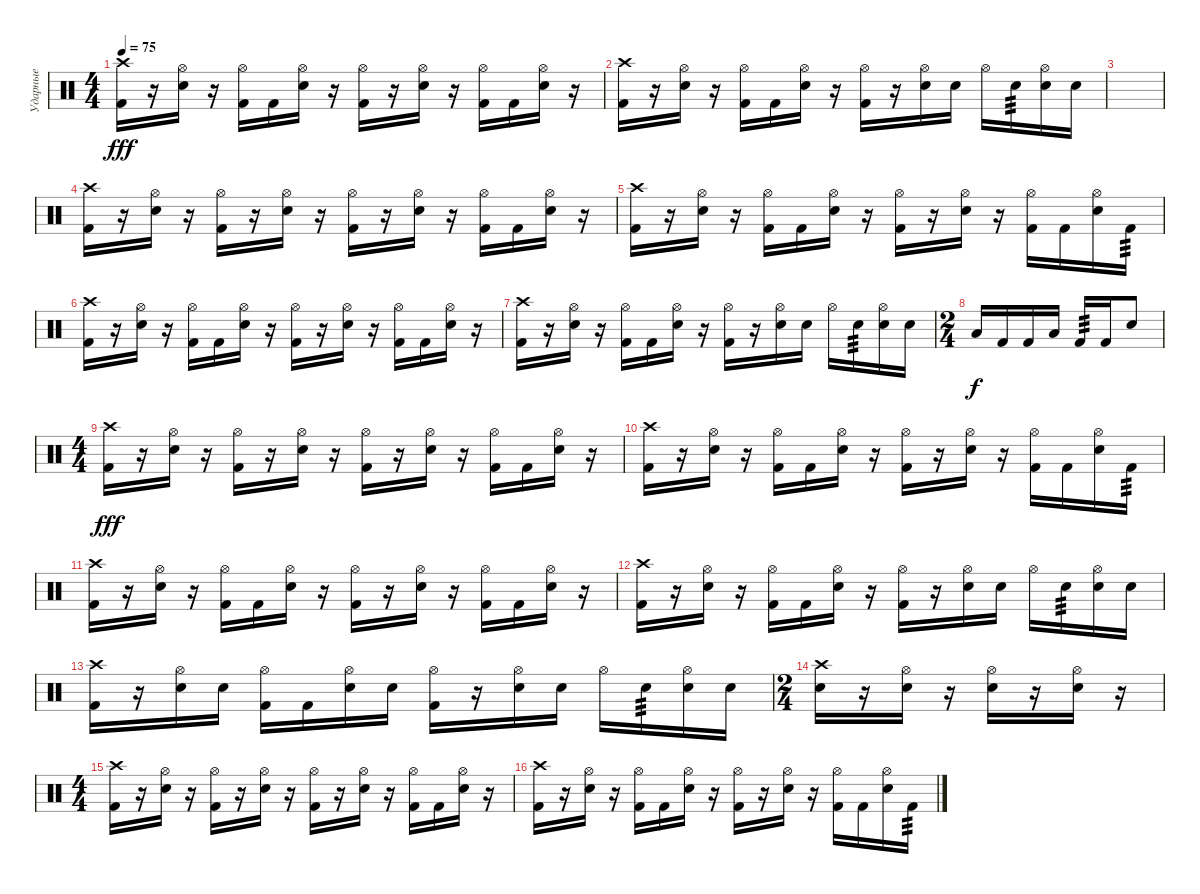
\track ("Ударные" "Ударные") {instrument percussion}
\staff {score}
\articulation defaults
\ts (4 4)
\tempo 75
\clef neutral
\ks c
("Crash high (hit)" "Kick (hit) 2").16{dy fff} r.16 ("Hi-Hat (open)" "Snare (hit) 2").16 r.16 ("Hi-Hat (open)" "Kick (hit) 2").16 "Kick (hit) 2".16 ("Hi-Hat (open)" "Snare (hit) 2").16 r.16 ("Hi-Hat (open)" "Kick (hit) 2").16 r.16 ("Hi-Hat (open)" "Snare (hit) 2").16 r.16 ("Hi-Hat (open)" "Kick (hit) 2").16 "Kick (hit) 2".16 ("Hi-Hat (open)" "Snare (hit) 2").16 r.16 |
("Crash high (hit)" "Kick (hit) 2").16 r.16 ("Hi-Hat (open)" "Snare (hit) 2").16 r.16 ("Hi-Hat (open)" "Kick (hit) 2").16 "Kick (hit) 2".16 ("Hi-Hat (open)" "Snare (hit) 2").16 r.16 ("Hi-Hat (open)" "Kick (hit) 2").16 r.16 ("Hi-Hat (open)" "Snare (hit) 2").16 "Snare (hit) 2".16 "Hi-Hat (open)".16 "Snare (hit) 2".16{tp 3} ("Hi-Hat (open)" "Snare (hit) 2").16 "Snare (hit) 2".16 |
|
("Crash high (hit)" "Kick (hit) 2").16 r.16 ("Hi-Hat (open)" "Snare (hit) 2").16 r.16 ("Hi-Hat (open)" "Kick (hit) 2").16 r.16 ("Hi-Hat (open)" "Snare (hit) 2").16 r.16 ("Hi-Hat (open)" "Kick (hit) 2").16 r.16 ("Hi-Hat (open)" "Snare (hit) 2").16 r.16 ("Hi-Hat (open)" "Kick (hit) 2").16 "Kick (hit) 2".16 ("Hi-Hat (open)" "Snare (hit) 2").16 r.16 |
("Crash high (hit)" "Kick (hit) 2").16 r.16 ("Hi-Hat (open)" "Snare (hit) 2").16 r.16 ("Hi-Hat (open)" "Kick (hit) 2").16 "Kick (hit) 2".16 ("Hi-Hat (open)" "Snare (hit) 2").16 r.16 ("Hi-Hat (open)" "Kick (hit) 2").16 r.16 ("Hi-Hat (open)" "Snare (hit) 2").16 r.16 ("Hi-Hat (open)" "Kick (hit) 2").16 "Kick (hit) 2".16 ("Hi-Hat (open)" "Snare (hit) 2").16 "Kick (hit) 2".16{tp 3} |
("Crash high (hit)" "Kick (hit) 2").16 r.16 ("Hi-Hat (open)" "Snare (hit) 2").16 r.16 ("Hi-Hat (open)" "Kick (hit) 2").16 "Kick (hit) 2".16 ("Hi-Hat (open)" "Snare (hit) 2").16 r.16 ("Hi-Hat (open)" "Kick (hit) 2").16 r.16 ("Hi-Hat (open)" "Snare (hit) 2").16 r.16 ("Hi-Hat (open)" "Kick (hit) 2").16 "Kick (hit) 2".16 ("Hi-Hat (open)" "Snare (hit) 2").16 r.16 |
("Crash high (hit)" "Kick (hit) 2").16 r.16 ("Hi-Hat (open)" "Snare (hit) 2").16 r.16 ("Hi-Hat (open)" "Kick (hit) 2").16 "Kick (hit) 2".16 ("Hi-Hat (open)" "Snare (hit) 2").16 r.16 ("Hi-Hat (open)" "Kick (hit) 2").16 r.16 ("Hi-Hat (open)" "Snare (hit) 2").16 "Snare (hit) 2".16 "Hi-Hat (open)".16 "Snare (hit) 2".16{tp 3} ("Hi-Hat (open)" "Snare (hit) 2").16 "Snare (hit) 2".16 |
\ts (2 4)
"Low Floor Tom (hit)".16{dy f} "Kick (hit) 2".16 "Kick (hit) 2".16 "Low Floor Tom (hit)".16 "Kick (hit) 2".16{tp 3} "Kick (hit) 2".16 "Snare (hit) 2".8 |
\ts (4 4)
("Crash high (hit)" "Kick (hit) 2").16{dy fff} r.16 ("Hi-Hat (open)" "Snare (hit) 2").16 r.16 ("Hi-Hat (open)" "Kick (hit) 2").16 r.16 ("Hi-Hat (open)" "Snare (hit) 2").16 r.16 ("Hi-Hat (open)" "Kick (hit) 2").16 r.16 ("Hi-Hat (open)" "Snare (hit) 2").16 r.16 ("Hi-Hat (open)" "Kick (hit) 2").16 "Kick (hit) 2".16 ("Hi-Hat (open)" "Snare (hit) 2").16 r.16 |
("Crash high (hit)" "Kick (hit) 2").16 r.16 ("Hi-Hat (open)" "Snare (hit) 2").16 r.16 ("Hi-Hat (open)" "Kick (hit) 2").16 "Kick (hit) 2".16 ("Hi-Hat (open)" "Snare (hit) 2").16 r.16 ("Hi-Hat (open)" "Kick (hit) 2").16 r.16 ("Hi-Hat (open)" "Snare (hit) 2").16 r.16 ("Hi-Hat (open)" "Kick (hit) 2").16 "Kick (hit) 2".16 ("Hi-Hat (open)" "Snare (hit) 2").16 "Kick (hit) 2".16{tp 3} |
("Crash high (hit)" "Kick (hit) 2").16 r.16 ("Hi-Hat (open)" "Snare (hit) 2").16 r.16 ("Hi-Hat (open)" "Kick (hit) 2").16 "Kick (hit) 2".16 ("Hi-Hat (open)" "Snare (hit) 2").16 r.16 ("Hi-Hat (open)" "Kick (hit) 2").16 r.16 ("Hi-Hat (open)" "Snare (hit) 2").16 r.16 ("Hi-Hat (open)" "Kick (hit) 2").16 "Kick (hit) 2".16 ("Hi-Hat (open)" "Snare (hit) 2").16 r.16 |
("Crash high (hit)" "Kick (hit) 2").16 r.16 ("Hi-Hat (open)" "Snare (hit) 2").16 r.16 ("Hi-Hat (open)" "Kick (hit) 2").16 "Kick (hit) 2".16 ("Hi-Hat (open)" "Snare (hit) 2").16 r.16 ("Hi-Hat (open)" "Kick (hit) 2").16 r.16 ("Hi-Hat (open)" "Snare (hit) 2").16 "Snare (hit) 2".16 "Hi-Hat (open)".16 "Snare (hit) 2".16{tp 3} ("Hi-Hat (open)" "Snare (hit) 2").16 "Snare (hit) 2".16 |
("Crash high (hit)" "Kick (hit) 2").16 r.16 ("Hi-Hat (open)" "Snare (hit) 2").16 "Snare (hit) 2".16 ("Hi-Hat (open)" "Kick (hit) 2").16 "Kick (hit) 2".16 ("Hi-Hat (open)" "Snare (hit) 2").16 "Snare (hit) 2".16 ("Hi-Hat (open)" "Kick (hit) 2").16 r.16 ("Hi-Hat (open)" "Snare (hit) 2").16 "Snare (hit) 2".16 "Hi-Hat (open)".16 "Snare (hit) 2".16{tp 3} ("Hi-Hat (open)" "Snare (hit) 2").16 "Snare (hit) 2".16 |
\ts (2 4)
("Crash high (hit)" "Snare (hit) 2").16 r.16 ("Hi-Hat (open)" "Snare (hit) 2").16 r.16 ("Hi-Hat (open)" "Snare (hit) 2").16 r.16 ("Hi-Hat (open)" "Snare (hit) 2").16 r.16 |
\ts (4 4)
("Crash high (hit)" "Kick (hit) 2").16 r.16 ("Hi-Hat (open)" "Snare (hit) 2").16 r.16 ("Hi-Hat (open)" "Kick (hit) 2").16 r.16 ("Hi-Hat (open)" "Snare (hit) 2").16 r.16 ("Hi-Hat (open)" "Kick (hit) 2").16 r.16 ("Hi-Hat (open)" "Snare (hit) 2").16 r.16 ("Hi-Hat (open)" "Kick (hit) 2").16 "Kick (hit) 2".16 ("Hi-Hat (open)" "Snare (hit) 2").16 r.16 |
("Crash high (hit)" "Kick (hit) 2").16 r.16 ("Hi-Hat (open)" "Snare (hit) 2").16 r.16 ("Hi-Hat (open)" "Kick (hit) 2").16 "Kick (hit) 2".16 ("Hi-Hat (open)" "Snare (hit) 2").16 r.16 ("Hi-Hat (open)" "Kick (hit) 2").16 r.16 ("Hi-Hat (open)" "Snare (hit) 2").16 r.16 ("Hi-Hat (open)" "Kick (hit) 2").16 "Kick (hit) 2".16 ("Hi-Hat (open)" "Snare (hit) 2").16 "Kick (hit) 2".16{tp 3}
